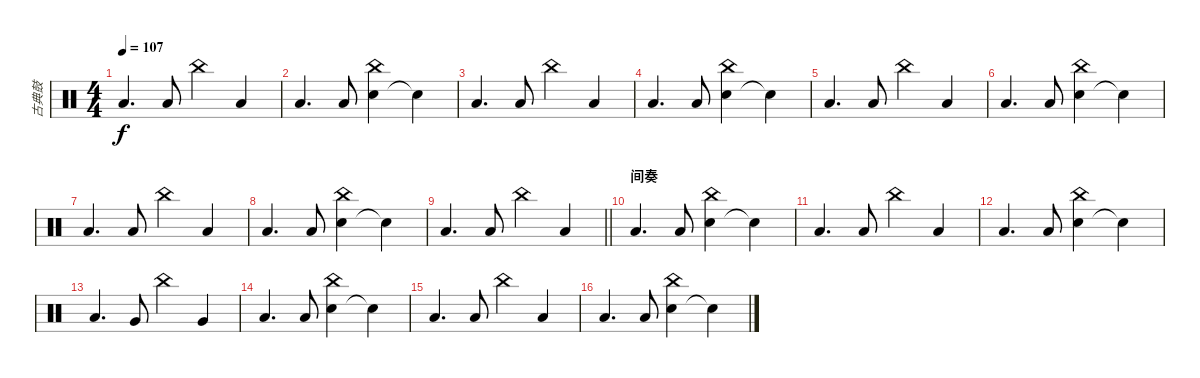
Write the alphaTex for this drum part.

\track ("古典鼓" "古典鼓") {instrument percussion}
\staff {score}
\articulation defaults
\ts (4 4)
\tempo 107
\clef neutral
\ks c "Low Floor Tom (hit)".4{d dy f} "Low Floor Tom (hit)".8 "China (hit)".4 "Low Floor Tom (hit)".4
|
"Low Floor Tom (hit)".4{d} "Low Floor Tom (hit)".8 ("Hand Clap (hit)" "China (hit)").4 "Snare (hit)"{t}.4 |
"Low Floor Tom (hit)".4{d} "Low Floor Tom (hit)".8 "China (hit)".4 "Low Floor Tom (hit)".4 |
"Low Floor Tom (hit)".4{d} "Low Floor Tom (hit)".8 ("Hand Clap (hit)" "China (hit)").4 "Snare (hit)"{t}.4 |
"Low Floor Tom (hit)".4{d} "Low Floor Tom (hit)".8 "China (hit)".4 "Low Floor Tom (hit)".4 |
"Low Floor Tom (hit)".4{d} "Low Floor Tom (hit)".8 ("Hand Clap (hit)" "China (hit)").4 "Snare (hit)"{t}.4 |
"Low Floor Tom (hit)".4{d} "Low Floor Tom (hit)".8 "China (hit)".4 "Low Floor Tom (hit)".4 |
"Low Floor Tom (hit)".4{d} "Low Floor Tom (hit)".8 ("Hand Clap (hit)" "China (hit)").4 "Snare (hit)"{t}.4 |
\barLineRight lightlight "Low Floor Tom (hit)".4{d} "Low Floor Tom (hit)".8 "China (hit)".4 "Low Floor Tom (hit)".4
|
\section ("" "间奏")
"Low Floor Tom (hit)".4{d} "Low Floor Tom (hit)".8 ("Hand Clap (hit)" "China (hit)").4 "Snare (hit)"{t}.4 |
"Low Floor Tom (hit)".4{d} "Low Floor Tom (hit)".8 "China (hit)".4 "Low Floor Tom (hit)".4 |
"Low Floor Tom (hit)".4{d} "Low Floor Tom (hit)".8 ("Hand Clap (hit)" "China (hit)").4 "Snare (hit)"{t}.4 |
"Low Floor Tom (hit)".4{d} "Very Low Tom (hit)".8 "China (hit)".4 "Very Low Tom (hit)".4 |
"Low Floor Tom (hit)".4{d} "Low Floor Tom (hit)".8 ("Hand Clap (hit)" "China (hit)").4 "Snare (hit)"{t}.4 |
"Low Floor Tom (hit)".4{d} "Low Floor Tom (hit)".8 "China (hit)".4 "Low Floor Tom (hit)".4 |
"Low Floor Tom (hit)".4{d} "Low Floor Tom (hit)".8 ("Hand Clap (hit)" "China (hit)").4 "Snare (hit)"{t}.4
